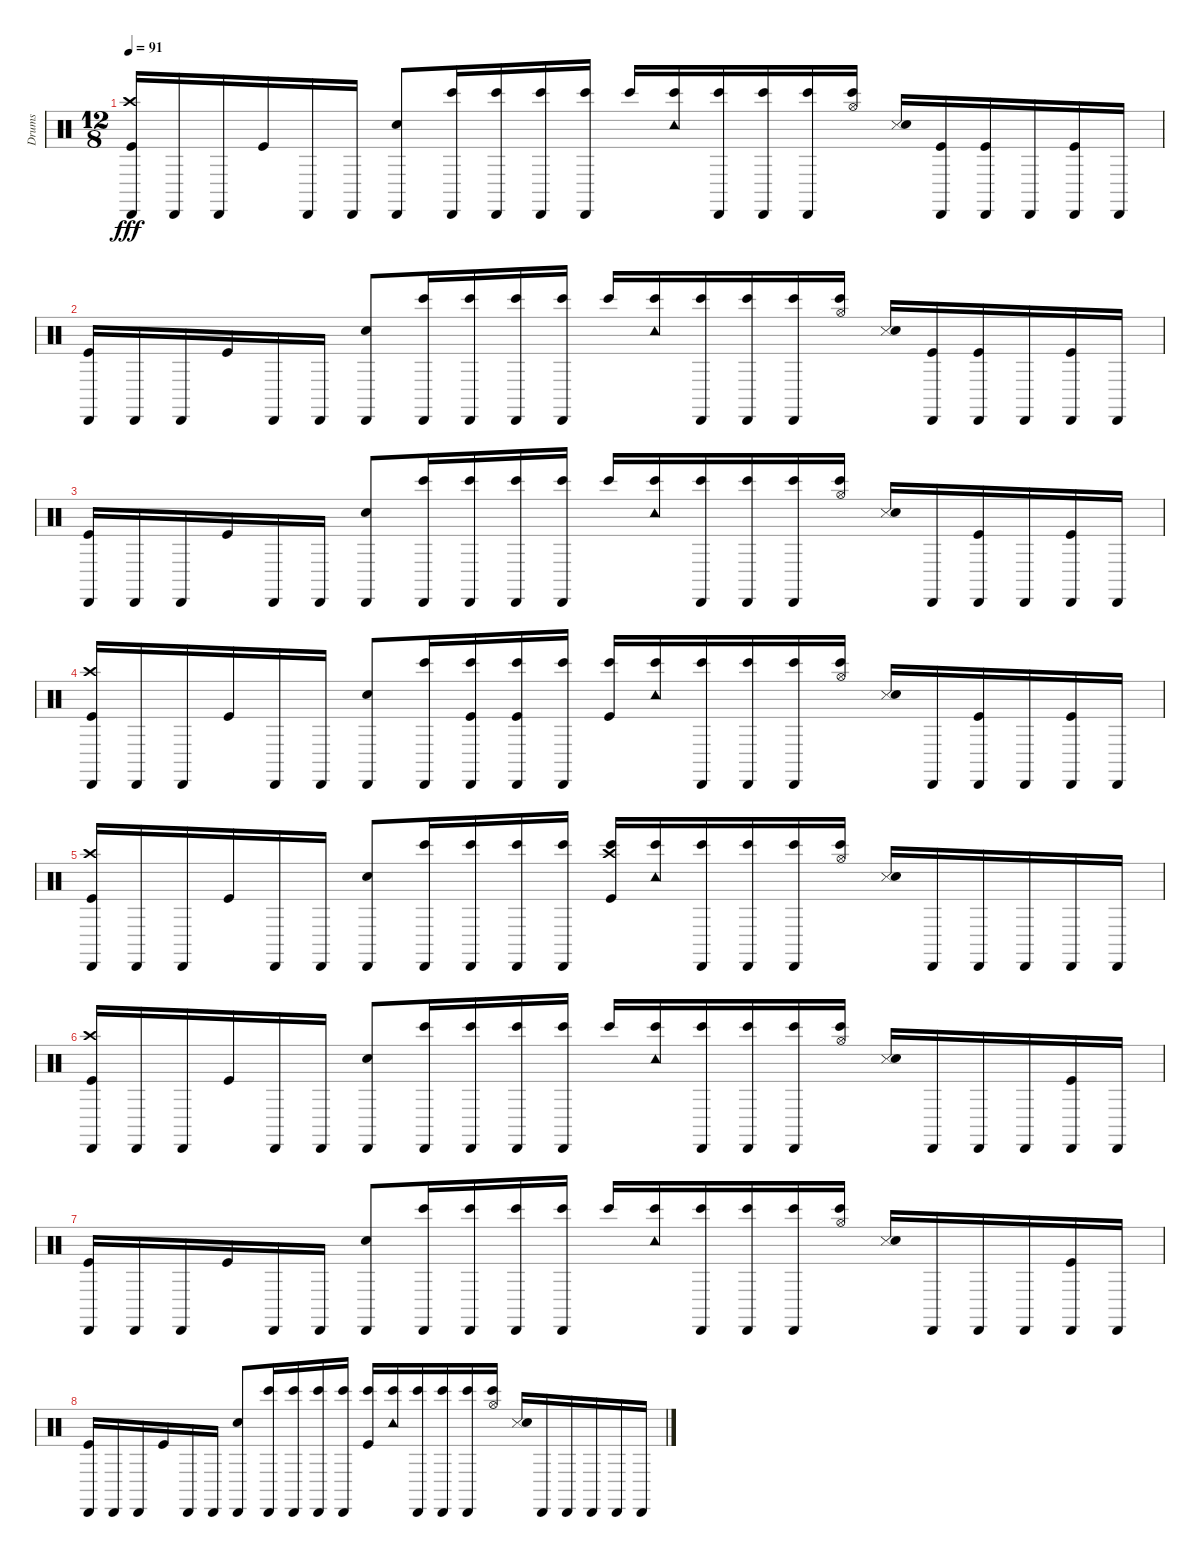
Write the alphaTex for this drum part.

\track ("Drums" "Drums") {instrument percussion}
\staff {score}
\articulation defaults
\ts (12 8)
\tempo 91
\clef neutral
\ks c
("Cabasa (hit)" "Crash high (hit)" "Kick (hit)").16{dy fff} "Cabasa (hit)".16 "Cabasa (hit)".16 "Kick (hit)".16 "Cabasa (hit)".16 "Cabasa (hit)".16 ("Cabasa (hit)" "Snare (hit) 2").8 ("Cabasa (hit)" "Bongo High (hit)").16 ("Cabasa (hit)" "Bongo High (hit)").16 ("Cabasa (hit)" "Bongo High (hit)").16 ("Cabasa (hit)" "Bongo High (hit)").16 "Bongo High (hit)".16 ("Tambourine (hit)" "Bongo High (hit)").16 ("Cabasa (hit)" "Bongo High (hit)").16 ("Cabasa (hit)" "Bongo High (hit)").16 ("Cabasa (hit)" "Bongo High (hit)").16 ("Hi-Hat (open)" "Bongo High (hit)").16 ("Snare (side stick) 3" "Electric Snare (hit)").16 ("Cabasa (hit)" "Kick (hit)").16 ("Cabasa (hit)" "Kick (hit)").16 "Cabasa (hit)".16 ("Cabasa (hit)" "Kick (hit)").16 "Cabasa (hit)".16 |
("Cabasa (hit)" "Kick (hit)").16 "Cabasa (hit)".16 "Cabasa (hit)".16 "Kick (hit)".16 "Cabasa (hit)".16 "Cabasa (hit)".16 ("Cabasa (hit)" "Snare (hit) 2").8 ("Cabasa (hit)" "Bongo High (hit)").16 ("Cabasa (hit)" "Bongo High (hit)").16 ("Cabasa (hit)" "Bongo High (hit)").16 ("Cabasa (hit)" "Bongo High (hit)").16 "Bongo High (hit)".16 ("Tambourine (hit)" "Bongo High (hit)").16 ("Cabasa (hit)" "Bongo High (hit)").16 ("Cabasa (hit)" "Bongo High (hit)").16 ("Cabasa (hit)" "Bongo High (hit)").16 ("Hi-Hat (open)" "Bongo High (hit)").16 ("Snare (side stick) 3" "Electric Snare (hit)").16 ("Cabasa (hit)" "Kick (hit)").16 ("Cabasa (hit)" "Kick (hit)").16 "Cabasa (hit)".16 ("Cabasa (hit)" "Kick (hit)").16 "Cabasa (hit)".16 |
("Cabasa (hit)" "Kick (hit)").16 "Cabasa (hit)".16 "Cabasa (hit)".16 "Kick (hit)".16 "Cabasa (hit)".16 "Cabasa (hit)".16 ("Cabasa (hit)" "Snare (hit) 2").8 ("Cabasa (hit)" "Bongo High (hit)").16 ("Cabasa (hit)" "Bongo High (hit)").16 ("Cabasa (hit)" "Bongo High (hit)").16 ("Cabasa (hit)" "Bongo High (hit)").16 "Bongo High (hit)".16 ("Tambourine (hit)" "Bongo High (hit)").16 ("Cabasa (hit)" "Bongo High (hit)").16 ("Cabasa (hit)" "Bongo High (hit)").16 ("Cabasa (hit)" "Bongo High (hit)").16 ("Hi-Hat (open)" "Bongo High (hit)").16 ("Snare (side stick) 3" "Electric Snare (hit)").16 "Cabasa (hit)".16 ("Cabasa (hit)" "Kick (hit)").16 "Cabasa (hit)".16 ("Cabasa (hit)" "Kick (hit)").16 "Cabasa (hit)".16 |
("Cabasa (hit)" "Crash high (hit)" "Kick (hit)").16 "Cabasa (hit)".16 "Cabasa (hit)".16 "Kick (hit)".16 "Cabasa (hit)".16 "Cabasa (hit)".16 ("Cabasa (hit)" "Snare (hit) 2").8 ("Cabasa (hit)" "Bongo High (hit)").16 ("Cabasa (hit)" "Bongo High (hit)" "Kick (hit)").16 ("Cabasa (hit)" "Bongo High (hit)" "Kick (hit)").16 ("Cabasa (hit)" "Bongo High (hit)").16 ("Bongo High (hit)" "Kick (hit)").16 ("Tambourine (hit)" "Bongo High (hit)").16 ("Cabasa (hit)" "Bongo High (hit)").16 ("Cabasa (hit)" "Bongo High (hit)").16 ("Cabasa (hit)" "Bongo High (hit)").16 ("Hi-Hat (open)" "Bongo High (hit)").16 ("Snare (side stick) 3" "Electric Snare (hit)").16 "Cabasa (hit)".16 ("Cabasa (hit)" "Kick (hit)").16 "Cabasa (hit)".16 ("Cabasa (hit)" "Kick (hit)").16 "Cabasa (hit)".16 |
("Cabasa (hit)" "Crash high (hit)" "Kick (hit)").16 "Cabasa (hit)".16 "Cabasa (hit)".16 "Kick (hit)".16 "Cabasa (hit)".16 "Cabasa (hit)".16 ("Cabasa (hit)" "Snare (hit) 2").8 ("Cabasa (hit)" "Bongo High (hit)").16 ("Cabasa (hit)" "Bongo High (hit)").16 ("Cabasa (hit)" "Bongo High (hit)").16 ("Cabasa (hit)" "Bongo High (hit)").16 ("Crash high (hit)" "Bongo High (hit)" "Kick (hit)").16 ("Tambourine (hit)" "Bongo High (hit)").16 ("Cabasa (hit)" "Bongo High (hit)").16 ("Cabasa (hit)" "Bongo High (hit)").16 ("Cabasa (hit)" "Bongo High (hit)").16 ("Hi-Hat (open)" "Bongo High (hit)").16 ("Snare (side stick) 3" "Electric Snare (hit)").16 "Cabasa (hit)".16 "Cabasa (hit)".16 "Cabasa (hit)".16 "Cabasa (hit)".16 "Cabasa (hit)".16 |
("Cabasa (hit)" "Crash high (hit)" "Kick (hit)").16 "Cabasa (hit)".16 "Cabasa (hit)".16 "Kick (hit)".16 "Cabasa (hit)".16 "Cabasa (hit)".16 ("Cabasa (hit)" "Snare (hit) 2").8 ("Cabasa (hit)" "Bongo High (hit)").16 ("Cabasa (hit)" "Bongo High (hit)").16 ("Cabasa (hit)" "Bongo High (hit)").16 ("Cabasa (hit)" "Bongo High (hit)").16 "Bongo High (hit)".16 ("Tambourine (hit)" "Bongo High (hit)").16 ("Cabasa (hit)" "Bongo High (hit)").16 ("Cabasa (hit)" "Bongo High (hit)").16 ("Cabasa (hit)" "Bongo High (hit)").16 ("Hi-Hat (open)" "Bongo High (hit)").16 ("Snare (side stick) 3" "Electric Snare (hit)").16 "Cabasa (hit)".16 "Cabasa (hit)".16 "Cabasa (hit)".16 ("Cabasa (hit)" "Kick (hit)").16 "Cabasa (hit)".16 |
("Cabasa (hit)" "Kick (hit)").16 "Cabasa (hit)".16 "Cabasa (hit)".16 "Kick (hit)".16 "Cabasa (hit)".16 "Cabasa (hit)".16 ("Cabasa (hit)" "Snare (hit) 2").8 ("Cabasa (hit)" "Bongo High (hit)").16 ("Cabasa (hit)" "Bongo High (hit)").16 ("Cabasa (hit)" "Bongo High (hit)").16 ("Cabasa (hit)" "Bongo High (hit)").16 "Bongo High (hit)".16 ("Tambourine (hit)" "Bongo High (hit)").16 ("Cabasa (hit)" "Bongo High (hit)").16 ("Cabasa (hit)" "Bongo High (hit)").16 ("Cabasa (hit)" "Bongo High (hit)").16 ("Hi-Hat (open)" "Bongo High (hit)").16 ("Snare (side stick) 3" "Electric Snare (hit)").16 "Cabasa (hit)".16 "Cabasa (hit)".16 "Cabasa (hit)".16 ("Cabasa (hit)" "Kick (hit)").16 "Cabasa (hit)".16 |
("Cabasa (hit)" "Kick (hit)").16 "Cabasa (hit)".16 "Cabasa (hit)".16 "Kick (hit)".16 "Cabasa (hit)".16 "Cabasa (hit)".16 ("Cabasa (hit)" "Snare (hit) 2").8 ("Cabasa (hit)" "Bongo High (hit)").16 ("Cabasa (hit)" "Bongo High (hit)").16 ("Cabasa (hit)" "Bongo High (hit)").16 ("Cabasa (hit)" "Bongo High (hit)").16 ("Bongo High (hit)" "Kick (hit)").16 ("Tambourine (hit)" "Bongo High (hit)").16 ("Cabasa (hit)" "Bongo High (hit)").16 ("Cabasa (hit)" "Bongo High (hit)").16 ("Cabasa (hit)" "Bongo High (hit)").16 ("Hi-Hat (open)" "Bongo High (hit)").16 ("Snare (side stick) 3" "Electric Snare (hit)").16 "Cabasa (hit)".16 "Cabasa (hit)".16 "Cabasa (hit)".16 "Cabasa (hit)".16 "Cabasa (hit)".16
